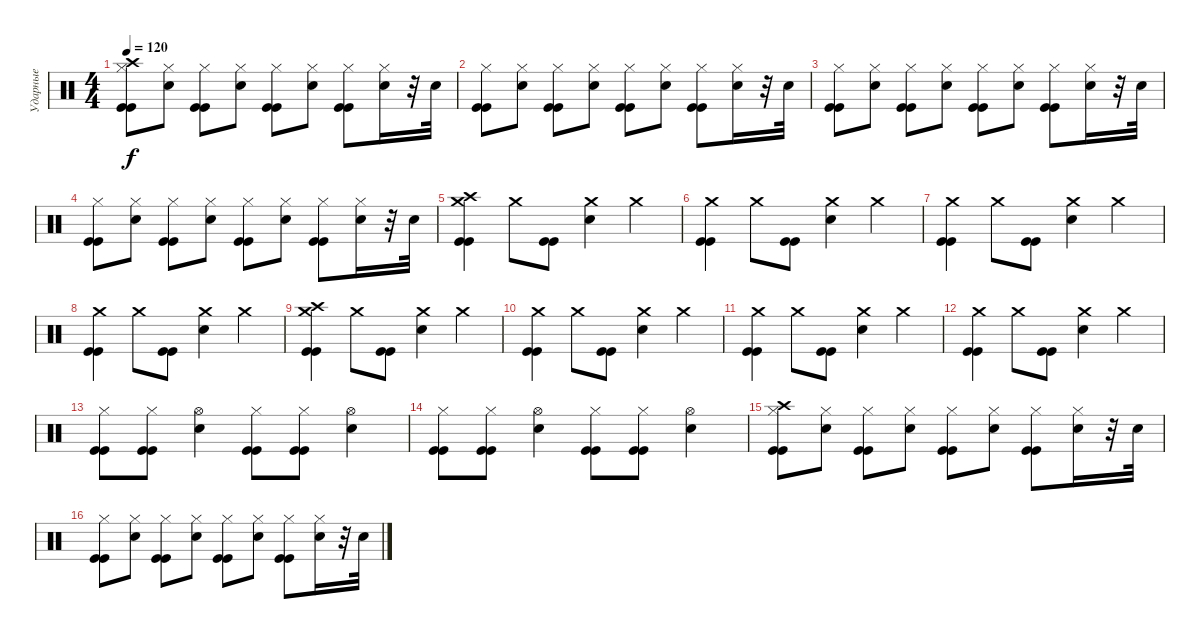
\track ("Ударные" "Ударные") {instrument percussion}
\staff {score}
\articulation defaults
\ts (4 4)
\tempo 120
\clef neutral
\ks c
("Crash high (hit)" "Hi-Hat (closed)" "Kick (hit)" "Kick (hit)").8{dy f} ("Hi-Hat (closed)" "Electric Snare (hit)").8 ("Hi-Hat (closed)" "Kick (hit)" "Kick (hit)").8 ("Hi-Hat (closed)" "Electric Snare (hit)").8 ("Hi-Hat (closed)" "Kick (hit)" "Kick (hit)").8 ("Hi-Hat (closed)" "Electric Snare (hit)").8 ("Hi-Hat (closed)" "Kick (hit)" "Kick (hit)").8 ("Hi-Hat (closed)" "Electric Snare (hit)").16 r.32 "Electric Snare (hit)".32 |
("Hi-Hat (closed)" "Kick (hit)" "Kick (hit)").8 ("Hi-Hat (closed)" "Electric Snare (hit)").8 ("Hi-Hat (closed)" "Kick (hit)" "Kick (hit)").8 ("Hi-Hat (closed)" "Electric Snare (hit)").8 ("Hi-Hat (closed)" "Kick (hit)" "Kick (hit)").8 ("Hi-Hat (closed)" "Electric Snare (hit)").8 ("Hi-Hat (closed)" "Kick (hit)" "Kick (hit)").8 ("Hi-Hat (closed)" "Electric Snare (hit)").16 r.32 "Electric Snare (hit)".32 |
("Hi-Hat (closed)" "Kick (hit)" "Kick (hit)").8 ("Hi-Hat (closed)" "Electric Snare (hit)").8 ("Hi-Hat (closed)" "Kick (hit)" "Kick (hit)").8 ("Hi-Hat (closed)" "Electric Snare (hit)").8 ("Hi-Hat (closed)" "Kick (hit)" "Kick (hit)").8 ("Hi-Hat (closed)" "Electric Snare (hit)").8 ("Hi-Hat (closed)" "Kick (hit)" "Kick (hit)").8 ("Hi-Hat (closed)" "Electric Snare (hit)").16 r.32 "Electric Snare (hit)".32 |
("Hi-Hat (closed)" "Kick (hit)" "Kick (hit)").8 ("Hi-Hat (closed)" "Electric Snare (hit)").8 ("Hi-Hat (closed)" "Kick (hit)" "Kick (hit)").8 ("Hi-Hat (closed)" "Electric Snare (hit)").8 ("Hi-Hat (closed)" "Kick (hit)" "Kick (hit)").8 ("Hi-Hat (closed)" "Electric Snare (hit)").8 ("Hi-Hat (closed)" "Kick (hit)" "Kick (hit)").8 ("Hi-Hat (closed)" "Electric Snare (hit)").16 r.32 "Electric Snare (hit)".32 |
("Crash high (hit)" "Crash medium (hit)" "Kick (hit)" "Kick (hit)").4 "Crash medium (hit)".8 ("Kick (hit)" "Kick (hit)").8 ("Crash medium (hit)" "Electric Snare (hit)").4 "Crash medium (hit)".4 |
("Crash medium (hit)" "Kick (hit)" "Kick (hit)").4 "Crash medium (hit)".8 ("Kick (hit)" "Kick (hit)").8 ("Crash medium (hit)" "Electric Snare (hit)").4 "Crash medium (hit)".4 |
("Crash medium (hit)" "Kick (hit)" "Kick (hit)").4 "Crash medium (hit)".8 ("Kick (hit)" "Kick (hit)").8 ("Crash medium (hit)" "Electric Snare (hit)").4 "Crash medium (hit)".4 |
("Crash medium (hit)" "Kick (hit)" "Kick (hit)").4 "Crash medium (hit)".8 ("Kick (hit)" "Kick (hit)").8 ("Crash medium (hit)" "Electric Snare (hit)").4 "Crash medium (hit)".4 |
("Crash high (hit)" "Crash medium (hit)" "Kick (hit)" "Kick (hit)").4 "Crash medium (hit)".8 ("Kick (hit)" "Kick (hit)").8 ("Crash medium (hit)" "Electric Snare (hit)").4 "Crash medium (hit)".4 |
("Crash medium (hit)" "Kick (hit)" "Kick (hit)").4 "Crash medium (hit)".8 ("Kick (hit)" "Kick (hit)").8 ("Crash medium (hit)" "Electric Snare (hit)").4 "Crash medium (hit)".4 |
("Crash medium (hit)" "Kick (hit)" "Kick (hit)").4 "Crash medium (hit)".8 ("Kick (hit)" "Kick (hit)").8 ("Crash medium (hit)" "Electric Snare (hit)").4 "Crash medium (hit)".4 |
("Crash medium (hit)" "Kick (hit)" "Kick (hit)").4 "Crash medium (hit)".8 ("Kick (hit)" "Kick (hit)").8 ("Crash medium (hit)" "Electric Snare (hit)").4 "Crash medium (hit)".4 |
("Hi-Hat (closed)" "Kick (hit)" "Kick (hit)").8 ("Hi-Hat (closed)" "Kick (hit)" "Kick (hit)").8 ("Hi-Hat (open)" "Electric Snare (hit)").4 ("Hi-Hat (closed)" "Kick (hit)" "Kick (hit)").8 ("Hi-Hat (closed)" "Kick (hit)" "Kick (hit)").8 ("Hi-Hat (open)" "Electric Snare (hit)").4 |
("Hi-Hat (closed)" "Kick (hit)" "Kick (hit)").8 ("Hi-Hat (closed)" "Kick (hit)" "Kick (hit)").8 ("Hi-Hat (open)" "Electric Snare (hit)").4 ("Hi-Hat (closed)" "Kick (hit)" "Kick (hit)").8 ("Hi-Hat (closed)" "Kick (hit)" "Kick (hit)").8 ("Hi-Hat (open)" "Electric Snare (hit)").4 |
("Crash high (hit)" "Hi-Hat (closed)" "Kick (hit)" "Kick (hit)").8 ("Hi-Hat (closed)" "Electric Snare (hit)").8 ("Hi-Hat (closed)" "Kick (hit)" "Kick (hit)").8 ("Hi-Hat (closed)" "Electric Snare (hit)").8 ("Hi-Hat (closed)" "Kick (hit)" "Kick (hit)").8 ("Hi-Hat (closed)" "Electric Snare (hit)").8 ("Hi-Hat (closed)" "Kick (hit)" "Kick (hit)").8 ("Hi-Hat (closed)" "Electric Snare (hit)").16 r.32 "Electric Snare (hit)".32 |
("Hi-Hat (closed)" "Kick (hit)" "Kick (hit)").8 ("Hi-Hat (closed)" "Electric Snare (hit)").8 ("Hi-Hat (closed)" "Kick (hit)" "Kick (hit)").8 ("Hi-Hat (closed)" "Electric Snare (hit)").8 ("Hi-Hat (closed)" "Kick (hit)" "Kick (hit)").8 ("Hi-Hat (closed)" "Electric Snare (hit)").8 ("Hi-Hat (closed)" "Kick (hit)" "Kick (hit)").8 ("Hi-Hat (closed)" "Electric Snare (hit)").16 r.32 "Electric Snare (hit)".32
